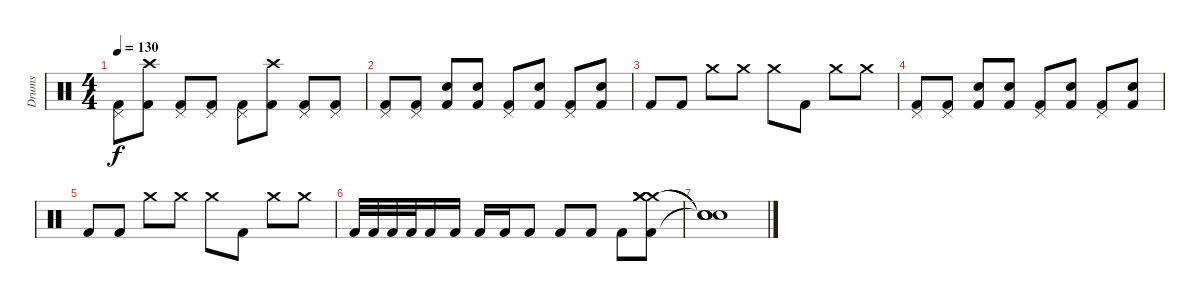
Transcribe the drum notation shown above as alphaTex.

\track ("Drums" "Drums") {instrument percussion}
\staff {score}
\articulation defaults
\ts (4 4)
\tempo 130
\clef neutral
\ks c
("Pedal Hi-Hat (hit)" "Kick (hit) 2").8{dy f} ("Crash high (hit)" "Kick (hit) 2").8 ("Pedal Hi-Hat (hit)" "Kick (hit) 2").8 ("Pedal Hi-Hat (hit)" "Kick (hit) 2").8 ("Pedal Hi-Hat (hit)" "Kick (hit) 2").8 ("Crash high (hit)" "Kick (hit) 2").8 ("Pedal Hi-Hat (hit)" "Kick (hit) 2").8 ("Pedal Hi-Hat (hit)" "Kick (hit) 2").8 |
("Pedal Hi-Hat (hit)" "Kick (hit) 2").8 ("Pedal Hi-Hat (hit)" "Kick (hit) 2").8 ("Electric Snare (hit)" "Kick (hit) 2").8 ("Electric Snare (hit)" "Kick (hit) 2").8 ("Pedal Hi-Hat (hit)" "Kick (hit) 2").8 ("Electric Snare (hit)" "Kick (hit) 2").8 ("Pedal Hi-Hat (hit)" "Kick (hit) 2").8 ("Electric Snare (hit)" "Kick (hit) 2").8 |
"Kick (hit) 2".8 "Kick (hit) 2".8 "Crash medium (hit)".8 "Crash medium (hit)".8 "Crash medium (hit)".8 "Kick (hit) 2".8 "Crash medium (hit)".8 "Crash medium (hit)".8 |
("Pedal Hi-Hat (hit)" "Kick (hit) 2").8 ("Pedal Hi-Hat (hit)" "Kick (hit) 2").8 ("Electric Snare (hit)" "Kick (hit) 2").8 ("Electric Snare (hit)" "Kick (hit) 2").8 ("Pedal Hi-Hat (hit)" "Kick (hit) 2").8 ("Electric Snare (hit)" "Kick (hit) 2").8 ("Pedal Hi-Hat (hit)" "Kick (hit) 2").8 ("Electric Snare (hit)" "Kick (hit) 2").8 |
"Kick (hit) 2".8 "Kick (hit) 2".8 "Crash medium (hit)".8 "Crash medium (hit)".8 "Crash medium (hit)".8 "Kick (hit) 2".8 "Crash medium (hit)".8 "Crash medium (hit)".8 |
"Kick (hit) 2".32 "Kick (hit) 2".32 "Kick (hit) 2".32 "Kick (hit) 2".32 "Kick (hit) 2".16 "Kick (hit) 2".16 "Kick (hit) 2".16 "Kick (hit) 2".16 "Kick (hit) 2".8 "Kick (hit) 2".8 "Kick (hit) 2".8 "Kick (hit) 2".8 ("Crash medium (hit)" "Crash medium (hit)" "Crash medium (hit)" "Kick (hit) 2").8 |
("Snare (hit)"{t} "Snare (hit)"{t} "Snare (hit)"{t} "Snare (hit)"{t}).1
